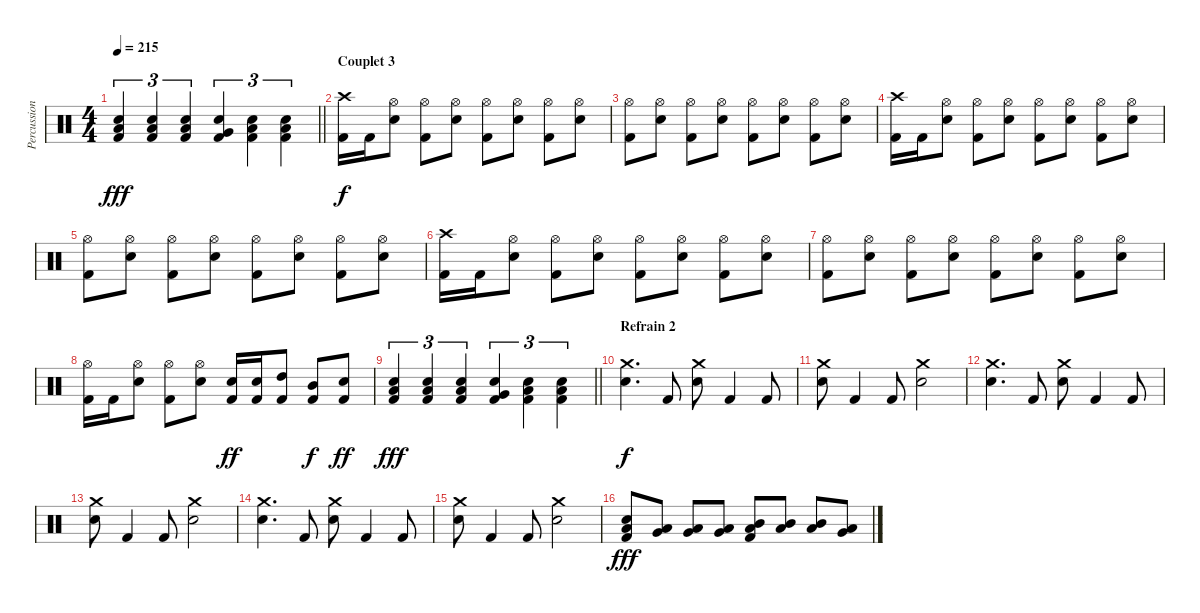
\track ("Percussions" "Percussion") {instrument percussion}
\staff {score}
\articulation defaults
\ts (4 4)
\tempo 215
\clef neutral
\barLineRight lightlight
\ks c
("Electric Snare (hit)" "Low Tom (hit)" "Kick (hit) 2").4{tu (3 2) dy fff} ("Electric Snare (hit)" "Low Tom (hit)" "Kick (hit) 2").4{tu (3 2)} ("Electric Snare (hit)" "Low Tom (hit)" "Kick (hit) 2").4{tu (3 2)} ("Electric Snare (hit)" "Very Low Tom (hit)" "Kick (hit) 2").4{tu (3 2)} ("Electric Snare (hit)" "Low Floor Tom (hit)" "Kick (hit) 2").4{tu (3 2)} ("Electric Snare (hit)" "Low Floor Tom (hit)" "Kick (hit) 2").4{tu (3 2)} |
\section ("" "Couplet 3")
("Crash high (hit)" "Kick (hit) 2").16{dy f} "Kick (hit) 2".16 ("Hi-Hat (open)" "Electric Snare (hit)").8 ("Hi-Hat (open)" "Kick (hit) 2").8 ("Hi-Hat (open)" "Electric Snare (hit)").8 ("Hi-Hat (open)" "Kick (hit) 2").8 ("Hi-Hat (open)" "Electric Snare (hit)").8 ("Hi-Hat (open)" "Kick (hit) 2").8 ("Hi-Hat (open)" "Electric Snare (hit)").8 |
("Hi-Hat (open)" "Kick (hit) 2").8 ("Hi-Hat (open)" "Electric Snare (hit)").8 ("Hi-Hat (open)" "Kick (hit) 2").8 ("Hi-Hat (open)" "Electric Snare (hit)").8 ("Hi-Hat (open)" "Kick (hit) 2").8 ("Hi-Hat (open)" "Electric Snare (hit)").8 ("Hi-Hat (open)" "Kick (hit) 2").8 ("Hi-Hat (open)" "Electric Snare (hit)").8 |
("Crash high (hit)" "Kick (hit) 2").16 "Kick (hit) 2".16 ("Hi-Hat (open)" "Electric Snare (hit)").8 ("Hi-Hat (open)" "Kick (hit) 2").8 ("Hi-Hat (open)" "Electric Snare (hit)").8 ("Hi-Hat (open)" "Kick (hit) 2").8 ("Hi-Hat (open)" "Electric Snare (hit)").8 ("Hi-Hat (open)" "Kick (hit) 2").8 ("Hi-Hat (open)" "Electric Snare (hit)").8 |
("Hi-Hat (open)" "Kick (hit) 2").8 ("Hi-Hat (open)" "Electric Snare (hit)").8 ("Hi-Hat (open)" "Kick (hit) 2").8 ("Hi-Hat (open)" "Electric Snare (hit)").8 ("Hi-Hat (open)" "Kick (hit) 2").8 ("Hi-Hat (open)" "Electric Snare (hit)").8 ("Hi-Hat (open)" "Kick (hit) 2").8 ("Hi-Hat (open)" "Electric Snare (hit)").8 |
("Crash high (hit)" "Kick (hit) 2").16 "Kick (hit) 2".16 ("Hi-Hat (open)" "Electric Snare (hit)").8 ("Hi-Hat (open)" "Kick (hit) 2").8 ("Hi-Hat (open)" "Electric Snare (hit)").8 ("Hi-Hat (open)" "Kick (hit) 2").8 ("Hi-Hat (open)" "Electric Snare (hit)").8 ("Hi-Hat (open)" "Kick (hit) 2").8 ("Hi-Hat (open)" "Electric Snare (hit)").8 |
("Hi-Hat (open)" "Kick (hit) 2").8 ("Hi-Hat (open)" "Electric Snare (hit)").8 ("Hi-Hat (open)" "Kick (hit) 2").8 ("Hi-Hat (open)" "Electric Snare (hit)").8 ("Hi-Hat (open)" "Kick (hit) 2").8 ("Hi-Hat (open)" "Electric Snare (hit)").8 ("Hi-Hat (open)" "Kick (hit) 2").8 ("Hi-Hat (open)" "Electric Snare (hit)").8 |
("Hi-Hat (open)" "Kick (hit) 2").16 "Kick (hit) 2".16 ("Hi-Hat (open)" "Electric Snare (hit)").8 ("Hi-Hat (open)" "Kick (hit) 2").8 ("Hi-Hat (open)" "Electric Snare (hit)").8 ("Electric Snare (hit)" "Kick (hit) 2").16{dy ff} ("Electric Snare (hit)" "Kick (hit) 2").16 ("High Tom (hit)" "Kick (hit) 2").8 ("Mid Tom (hit)" "Kick (hit) 2").8{dy f} ("Electric Snare (hit)" "Kick (hit) 2").8{dy ff} |
\barLineRight lightlight
("Electric Snare (hit)" "Low Tom (hit)" "Kick (hit) 2").4{tu (3 2) dy fff} ("Electric Snare (hit)" "Low Tom (hit)" "Kick (hit) 2").4{tu (3 2)} ("Electric Snare (hit)" "Low Tom (hit)" "Kick (hit) 2").4{tu (3 2)} ("Electric Snare (hit)" "Very Low Tom (hit)" "Kick (hit) 2").4{tu (3 2)} ("Electric Snare (hit)" "Low Floor Tom (hit)" "Kick (hit) 2").4{tu (3 2)} ("Electric Snare (hit)" "Low Floor Tom (hit)" "Kick (hit) 2").4{tu (3 2)} |
\section ("" "Refrain 2")
("Crash medium (hit)" "Electric Snare (hit)").4{d dy f} "Kick (hit) 2".8 ("Crash medium (hit)" "Electric Snare (hit)").8 "Kick (hit) 2".4 "Kick (hit) 2".8 |
("Crash medium (hit)" "Electric Snare (hit)").8 "Kick (hit) 2".4 "Kick (hit) 2".8 ("Crash medium (hit)" "Electric Snare (hit)").2 |
("Crash medium (hit)" "Electric Snare (hit)").4{d} "Kick (hit) 2".8 ("Crash medium (hit)" "Electric Snare (hit)").8 "Kick (hit) 2".4 "Kick (hit) 2".8 |
("Crash medium (hit)" "Electric Snare (hit)").8 "Kick (hit) 2".4 "Kick (hit) 2".8 ("Crash medium (hit)" "Electric Snare (hit)").2 |
("Crash medium (hit)" "Electric Snare (hit)").4{d} "Kick (hit) 2".8 ("Crash medium (hit)" "Electric Snare (hit)").8 "Kick (hit) 2".4 "Kick (hit) 2".8 |
("Crash medium (hit)" "Electric Snare (hit)").8 "Kick (hit) 2".4 "Kick (hit) 2".8 ("Crash medium (hit)" "Electric Snare (hit)").2 |
("Low Tom (hit)" "Electric Snare (hit)" "Kick (hit) 2").8{dy fff} ("Low Tom (hit)" "Very Low Tom (hit)").8 ("Low Tom (hit)" "Very Low Tom (hit)").8 ("Low Tom (hit)" "Very Low Tom (hit)").8 ("Mid Tom (hit)" "Low Tom (hit)" "Kick (hit) 2").8 ("Mid Tom (hit)" "Low Tom (hit)").8 ("Mid Tom (hit)" "Low Tom (hit)").8 ("Very Low Tom (hit)" "Low Floor Tom (hit)").8
